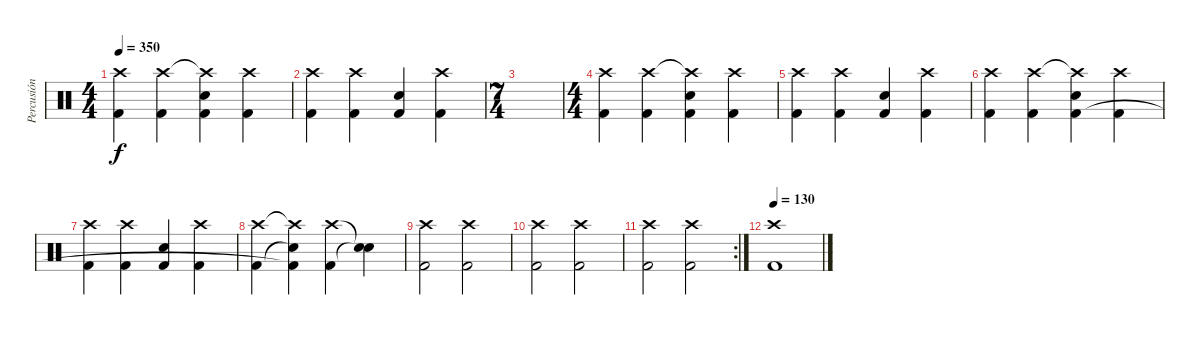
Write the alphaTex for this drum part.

\track ("Percusión" "Percusión") {instrument percussion}
\staff {score}
\articulation defaults
\ts (4 4)
\tempo 350
\clef neutral
\ks c
("Crash high (hit)" "Kick (hit) 2").4{dy f} ("Crash high (hit)" "Kick (hit) 2").4 ("Crash high (hit)"{t} "Snare (hit) 2" "Kick (hit) 2").4 ("Crash high (hit)" "Kick (hit) 2").4 |
("Crash high (hit)" "Kick (hit) 2").4 ("Crash high (hit)" "Kick (hit) 2").4 ("Snare (hit) 2" "Kick (hit) 2").4 ("Crash high (hit)" "Kick (hit) 2").4 |
\ts (7 4)
|
\ts (4 4)
("Crash high (hit)" "Kick (hit) 2").4 ("Crash high (hit)" "Kick (hit) 2").4 ("Crash high (hit)"{t} "Snare (hit) 2" "Kick (hit) 2").4 ("Crash high (hit)" "Kick (hit) 2").4 |
("Crash high (hit)" "Kick (hit) 2").4 ("Crash high (hit)" "Kick (hit) 2").4 ("Snare (hit) 2" "Kick (hit) 2").4 ("Crash high (hit)" "Kick (hit) 2").4 |
("Crash high (hit)" "Kick (hit) 2").4 ("Crash high (hit)" "Kick (hit) 2").4 ("Crash high (hit)"{t} "Snare (hit) 2" "Kick (hit) 2").4 ("Crash high (hit)" "Kick (hit) 2").4 |
("Crash high (hit)" "Kick (hit) 2").4 ("Crash high (hit)" "Kick (hit) 2").4 ("Snare (hit) 2" "Kick (hit) 2").4 ("Crash high (hit)" "Kick (hit) 2").4 |
("Crash high (hit)" "Kick (hit) 2").4 ("Crash high (hit)"{t} "Snare (hit)"{t} "Kick (hit) 2"{t}).4 ("Crash high (hit)" "Kick (hit) 2").4 ("Snare (hit)"{t} "Snare (hit)"{t}).4 |
("Crash high (hit)" "Kick (hit) 2").2 ("Crash high (hit)" "Kick (hit) 2").2 |
("Crash high (hit)" "Kick (hit) 2").2 ("Crash high (hit)" "Kick (hit) 2").2 |
\rc 2
("Crash high (hit)" "Kick (hit) 2").2 ("Crash high (hit)" "Kick (hit) 2").2 |
\tempo 130
("Crash high (hit)" "Kick (hit) 2").1
